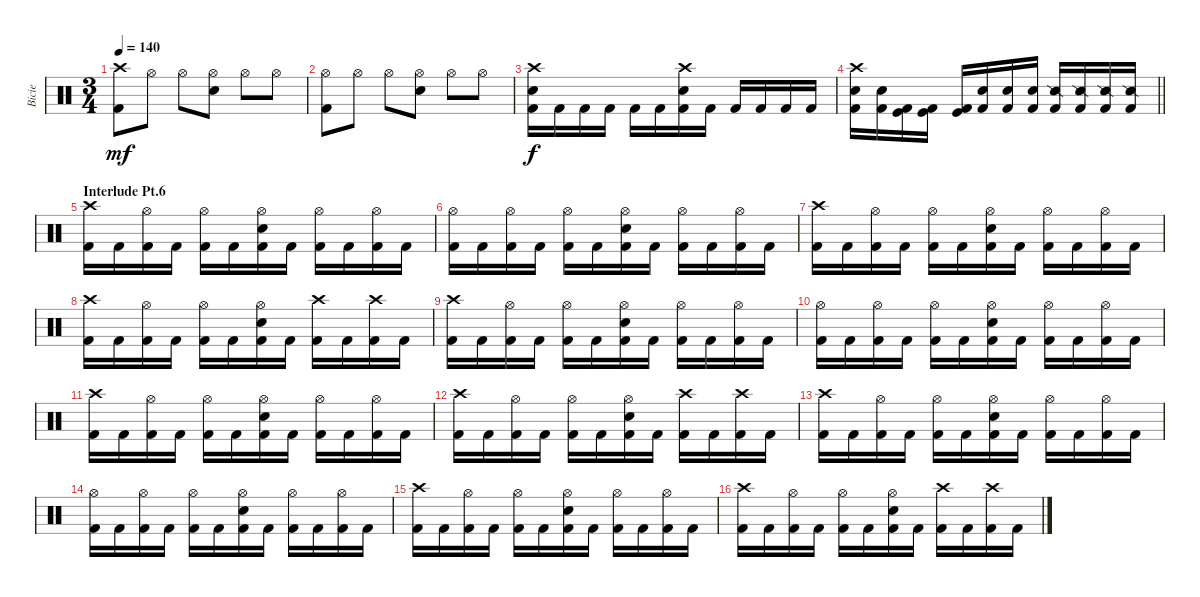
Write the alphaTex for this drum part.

\track ("Bicie" "Bicie") {instrument percussion}
\staff {score}
\articulation defaults
\ts (3 4)
\tempo 140
\clef neutral
\ks c
("Crash high (hit)" "Kick (hit) 2").8{dy mf} "Hi-Hat (open)".8 "Hi-Hat (open)".8 ("Hi-Hat (open)" "Snare (hit) 2").8 "Hi-Hat (open)".8 "Hi-Hat (open)".8 |
("Hi-Hat (open)" "Kick (hit) 2").8 "Hi-Hat (open)".8 "Hi-Hat (open)".8 ("Hi-Hat (open)" "Snare (hit) 2").8 "Hi-Hat (open)".8 "Hi-Hat (open)".8 |
("Crash high (hit)" "Snare (hit) 2" "Kick (hit) 2").16{dy f} "Kick (hit) 2".16 "Kick (hit) 2".16 "Kick (hit) 2".16 "Kick (hit) 2".16 "Kick (hit) 2".16 ("Crash high (hit)" "Snare (hit) 2" "Kick (hit) 2").16 "Kick (hit) 2".16 "Kick (hit) 2".16 "Kick (hit) 2".16 "Kick (hit) 2".16 "Kick (hit) 2".16 |
\barLineRight lightlight
("Crash high (hit)" "Snare (hit) 2" "Kick (hit) 2").16 ("Snare (hit) 2" "Kick (hit) 2").16 ("Kick (hit)" "Kick (hit) 2").16 ("Kick (hit)" "Kick (hit) 2").16 ("Kick (hit)" "Kick (hit) 2").16 ("Metronome (bell)" "Kick (hit) 2").16 ("Metronome (bell)" "Kick (hit) 2").16 ("Metronome (bell)" "Kick (hit) 2").16 ("Snare (side stick) 2" "Kick (hit) 2").16 ("Snare (side stick) 2" "Kick (hit) 2").16 ("Snare (side stick) 2" "Kick (hit) 2").16 ("Snare (side stick) 2" "Kick (hit) 2").16 |
\section ("" "Interlude Pt.6")
("Crash high (hit)" "Kick (hit) 2").16 "Kick (hit) 2".16 ("Hi-Hat (open)" "Kick (hit) 2").16 "Kick (hit) 2".16 ("Hi-Hat (open)" "Kick (hit) 2").16 "Kick (hit) 2".16 ("Hi-Hat (open)" "Snare (hit) 2" "Kick (hit) 2").16 "Kick (hit) 2".16 ("Hi-Hat (open)" "Kick (hit) 2").16 "Kick (hit) 2".16 ("Hi-Hat (open)" "Kick (hit) 2").16 "Kick (hit) 2".16 |
("Hi-Hat (open)" "Kick (hit) 2").16 "Kick (hit) 2".16 ("Hi-Hat (open)" "Kick (hit) 2").16 "Kick (hit) 2".16 ("Hi-Hat (open)" "Kick (hit) 2").16 "Kick (hit) 2".16 ("Hi-Hat (open)" "Snare (hit) 2" "Kick (hit) 2").16 "Kick (hit) 2".16 ("Hi-Hat (open)" "Kick (hit) 2").16 "Kick (hit) 2".16 ("Hi-Hat (open)" "Kick (hit) 2").16 "Kick (hit) 2".16 |
("Crash high (hit)" "Kick (hit) 2").16 "Kick (hit) 2".16 ("Hi-Hat (open)" "Kick (hit) 2").16 "Kick (hit) 2".16 ("Hi-Hat (open)" "Kick (hit) 2").16 "Kick (hit) 2".16 ("Hi-Hat (open)" "Snare (hit) 2" "Kick (hit) 2").16 "Kick (hit) 2".16 ("Hi-Hat (open)" "Kick (hit) 2").16 "Kick (hit) 2".16 ("Hi-Hat (open)" "Kick (hit) 2").16 "Kick (hit) 2".16 |
("Crash high (hit)" "Kick (hit) 2").16 "Kick (hit) 2".16 ("Hi-Hat (open)" "Kick (hit) 2").16 "Kick (hit) 2".16 ("Hi-Hat (open)" "Kick (hit) 2").16 "Kick (hit) 2".16 ("Hi-Hat (open)" "Snare (hit) 2" "Kick (hit) 2").16 "Kick (hit) 2".16 ("Crash high (hit)" "Kick (hit) 2").16 "Kick (hit) 2".16 ("Crash high (hit)" "Kick (hit) 2").16 "Kick (hit) 2".16 |
("Crash high (hit)" "Kick (hit) 2").16 "Kick (hit) 2".16 ("Hi-Hat (open)" "Kick (hit) 2").16 "Kick (hit) 2".16 ("Hi-Hat (open)" "Kick (hit) 2").16 "Kick (hit) 2".16 ("Hi-Hat (open)" "Snare (hit) 2" "Kick (hit) 2").16 "Kick (hit) 2".16 ("Hi-Hat (open)" "Kick (hit) 2").16 "Kick (hit) 2".16 ("Hi-Hat (open)" "Kick (hit) 2").16 "Kick (hit) 2".16 |
("Hi-Hat (open)" "Kick (hit) 2").16 "Kick (hit) 2".16 ("Hi-Hat (open)" "Kick (hit) 2").16 "Kick (hit) 2".16 ("Hi-Hat (open)" "Kick (hit) 2").16 "Kick (hit) 2".16 ("Hi-Hat (open)" "Snare (hit) 2" "Kick (hit) 2").16 "Kick (hit) 2".16 ("Hi-Hat (open)" "Kick (hit) 2").16 "Kick (hit) 2".16 ("Hi-Hat (open)" "Kick (hit) 2").16 "Kick (hit) 2".16 |
("Crash high (hit)" "Kick (hit) 2").16 "Kick (hit) 2".16 ("Hi-Hat (open)" "Kick (hit) 2").16 "Kick (hit) 2".16 ("Hi-Hat (open)" "Kick (hit) 2").16 "Kick (hit) 2".16 ("Hi-Hat (open)" "Snare (hit) 2" "Kick (hit) 2").16 "Kick (hit) 2".16 ("Hi-Hat (open)" "Kick (hit) 2").16 "Kick (hit) 2".16 ("Hi-Hat (open)" "Kick (hit) 2").16 "Kick (hit) 2".16 |
("Crash high (hit)" "Kick (hit) 2").16 "Kick (hit) 2".16 ("Hi-Hat (open)" "Kick (hit) 2").16 "Kick (hit) 2".16 ("Hi-Hat (open)" "Kick (hit) 2").16 "Kick (hit) 2".16 ("Hi-Hat (open)" "Snare (hit) 2" "Kick (hit) 2").16 "Kick (hit) 2".16 ("Crash high (hit)" "Kick (hit) 2").16 "Kick (hit) 2".16 ("Crash high (hit)" "Kick (hit) 2").16 "Kick (hit) 2".16 |
("Crash high (hit)" "Kick (hit) 2").16 "Kick (hit) 2".16 ("Hi-Hat (open)" "Kick (hit) 2").16 "Kick (hit) 2".16 ("Hi-Hat (open)" "Kick (hit) 2").16 "Kick (hit) 2".16 ("Hi-Hat (open)" "Snare (hit) 2" "Kick (hit) 2").16 "Kick (hit) 2".16 ("Hi-Hat (open)" "Kick (hit) 2").16 "Kick (hit) 2".16 ("Hi-Hat (open)" "Kick (hit) 2").16 "Kick (hit) 2".16 |
("Hi-Hat (open)" "Kick (hit) 2").16 "Kick (hit) 2".16 ("Hi-Hat (open)" "Kick (hit) 2").16 "Kick (hit) 2".16 ("Hi-Hat (open)" "Kick (hit) 2").16 "Kick (hit) 2".16 ("Hi-Hat (open)" "Snare (hit) 2" "Kick (hit) 2").16 "Kick (hit) 2".16 ("Hi-Hat (open)" "Kick (hit) 2").16 "Kick (hit) 2".16 ("Hi-Hat (open)" "Kick (hit) 2").16 "Kick (hit) 2".16 |
("Crash high (hit)" "Kick (hit) 2").16 "Kick (hit) 2".16 ("Hi-Hat (open)" "Kick (hit) 2").16 "Kick (hit) 2".16 ("Hi-Hat (open)" "Kick (hit) 2").16 "Kick (hit) 2".16 ("Hi-Hat (open)" "Snare (hit) 2" "Kick (hit) 2").16 "Kick (hit) 2".16 ("Hi-Hat (open)" "Kick (hit) 2").16 "Kick (hit) 2".16 ("Hi-Hat (open)" "Kick (hit) 2").16 "Kick (hit) 2".16 |
("Crash high (hit)" "Kick (hit) 2").16 "Kick (hit) 2".16 ("Hi-Hat (open)" "Kick (hit) 2").16 "Kick (hit) 2".16 ("Hi-Hat (open)" "Kick (hit) 2").16 "Kick (hit) 2".16 ("Hi-Hat (open)" "Snare (hit) 2" "Kick (hit) 2").16 "Kick (hit) 2".16 ("Crash high (hit)" "Kick (hit) 2").16 "Kick (hit) 2".16 ("Crash high (hit)" "Kick (hit) 2").16 "Kick (hit) 2".16
